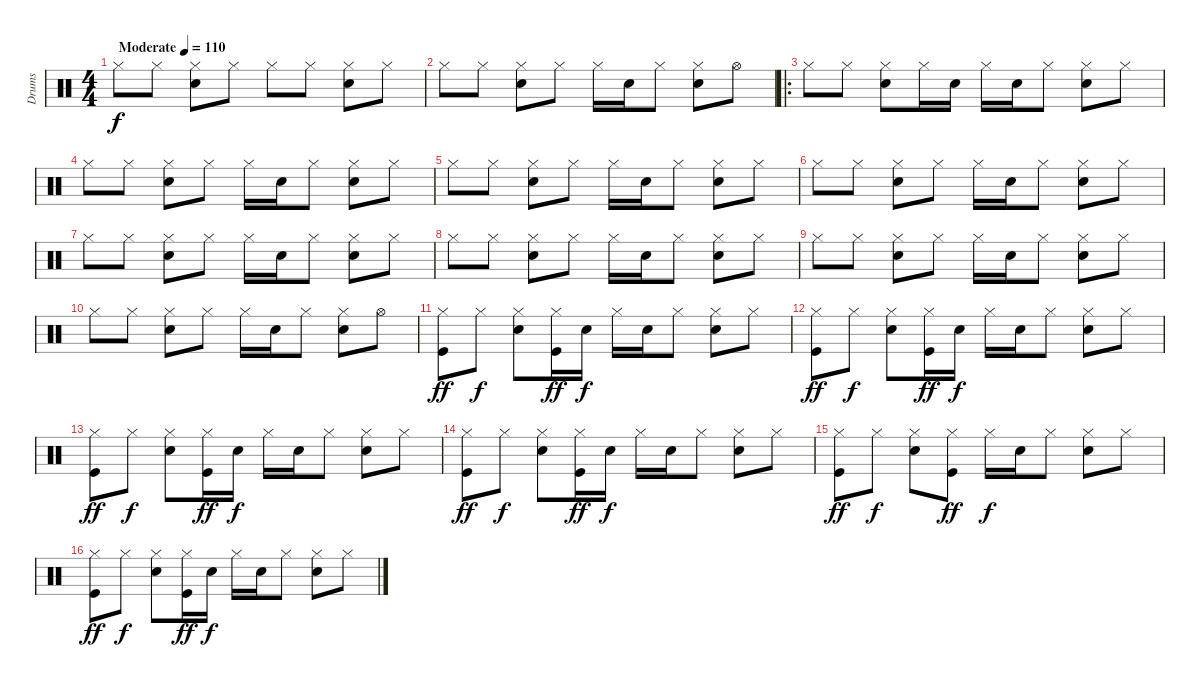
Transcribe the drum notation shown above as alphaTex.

\track ("Drums" "Drums") {instrument percussion}
\staff {score}
\articulation defaults
\ts (4 4)
\tempo (110 "Moderate")
\clef neutral
\ks c "Hi-Hat (closed)".8{dy f} "Hi-Hat (closed)".8
("Hi-Hat (closed)" "Snare (hit) 2").8 "Hi-Hat (closed)".8 "Hi-Hat (closed)".8 "Hi-Hat (closed)".8 ("Hi-Hat (closed)" "Snare (hit) 2").8 "Hi-Hat (closed)".8 |
"Hi-Hat (closed)".8 "Hi-Hat (closed)".8 ("Hi-Hat (closed)" "Snare (hit) 2").8 "Hi-Hat (closed)".8 "Hi-Hat (closed)".16 "Snare (hit) 2".16 "Hi-Hat (closed)".8 ("Hi-Hat (closed)" "Snare (hit) 2").8 "Hi-Hat (open)".8 |
\ro "Hi-Hat (closed)".8 "Hi-Hat (closed)".8
("Hi-Hat (closed)" "Snare (hit) 2").8 "Hi-Hat (closed)".16 "Snare (hit) 2".16 "Hi-Hat (closed)".16 "Snare (hit) 2".16 "Hi-Hat (closed)".8 ("Hi-Hat (closed)" "Snare (hit) 2").8 "Hi-Hat (closed)".8 |
"Hi-Hat (closed)".8 "Hi-Hat (closed)".8 ("Hi-Hat (closed)" "Snare (hit) 2").8 "Hi-Hat (closed)".8 "Hi-Hat (closed)".16 "Snare (hit) 2".16 "Hi-Hat (closed)".8 ("Hi-Hat (closed)" "Snare (hit) 2").8 "Hi-Hat (closed)".8 |
"Hi-Hat (closed)".8 "Hi-Hat (closed)".8 ("Hi-Hat (closed)" "Snare (hit) 2").8 "Hi-Hat (closed)".8 "Hi-Hat (closed)".16 "Snare (hit) 2".16 "Hi-Hat (closed)".8 ("Hi-Hat (closed)" "Snare (hit) 2").8 "Hi-Hat (closed)".8 |
"Hi-Hat (closed)".8 "Hi-Hat (closed)".8 ("Hi-Hat (closed)" "Snare (hit) 2").8 "Hi-Hat (closed)".8 "Hi-Hat (closed)".16 "Snare (hit) 2".16 "Hi-Hat (closed)".8 ("Hi-Hat (closed)" "Snare (hit) 2").8 "Hi-Hat (closed)".8 |
"Hi-Hat (closed)".8 "Hi-Hat (closed)".8 ("Hi-Hat (closed)" "Snare (hit) 2").8 "Hi-Hat (closed)".8 "Hi-Hat (closed)".16 "Snare (hit) 2".16 "Hi-Hat (closed)".8 ("Hi-Hat (closed)" "Snare (hit) 2").8 "Hi-Hat (closed)".8 |
"Hi-Hat (closed)".8 "Hi-Hat (closed)".8 ("Hi-Hat (closed)" "Snare (hit) 2").8 "Hi-Hat (closed)".8 "Hi-Hat (closed)".16 "Snare (hit) 2".16 "Hi-Hat (closed)".8 ("Hi-Hat (closed)" "Snare (hit) 2").8 "Hi-Hat (closed)".8 |
"Hi-Hat (closed)".8 "Hi-Hat (closed)".8 ("Hi-Hat (closed)" "Snare (hit) 2").8 "Hi-Hat (closed)".8 "Hi-Hat (closed)".16 "Snare (hit) 2".16 "Hi-Hat (closed)".8 ("Hi-Hat (closed)" "Snare (hit) 2").8 "Hi-Hat (closed)".8 |
"Hi-Hat (closed)".8 "Hi-Hat (closed)".8 ("Hi-Hat (closed)" "Snare (hit) 2").8 "Hi-Hat (closed)".8 "Hi-Hat (closed)".16 "Snare (hit) 2".16 "Hi-Hat (closed)".8 ("Hi-Hat (closed)" "Snare (hit) 2").8 "Hi-Hat (open)".8 |
("Hi-Hat (closed)" "Kick (hit)").8{dy ff} "Hi-Hat (closed)".8{dy f} ("Hi-Hat (closed)" "Snare (hit) 2").8 ("Hi-Hat (closed)" "Kick (hit)").16{dy ff} "Snare (hit) 2".16{dy f} "Hi-Hat (closed)".16 "Snare (hit) 2".16 "Hi-Hat (closed)".8 ("Hi-Hat (closed)" "Snare (hit) 2").8 "Hi-Hat (closed)".8 |
("Hi-Hat (closed)" "Kick (hit)").8{dy ff} "Hi-Hat (closed)".8{dy f} ("Hi-Hat (closed)" "Snare (hit) 2").8 ("Hi-Hat (closed)" "Kick (hit)").16{dy ff} "Snare (hit) 2".16{dy f} "Hi-Hat (closed)".16 "Snare (hit) 2".16 "Hi-Hat (closed)".8 ("Hi-Hat (closed)" "Snare (hit) 2").8 "Hi-Hat (closed)".8 |
("Hi-Hat (closed)" "Kick (hit)").8{dy ff} "Hi-Hat (closed)".8{dy f} ("Hi-Hat (closed)" "Snare (hit) 2").8 ("Hi-Hat (closed)" "Kick (hit)").16{dy ff} "Snare (hit) 2".16{dy f} "Hi-Hat (closed)".16 "Snare (hit) 2".16 "Hi-Hat (closed)".8 ("Hi-Hat (closed)" "Snare (hit) 2").8 "Hi-Hat (closed)".8 |
("Hi-Hat (closed)" "Kick (hit)").8{dy ff} "Hi-Hat (closed)".8{dy f} ("Hi-Hat (closed)" "Snare (hit) 2").8 ("Hi-Hat (closed)" "Kick (hit)").16{dy ff} "Snare (hit) 2".16{dy f} "Hi-Hat (closed)".16 "Snare (hit) 2".16 "Hi-Hat (closed)".8 ("Hi-Hat (closed)" "Snare (hit) 2").8 "Hi-Hat (closed)".8 |
("Hi-Hat (closed)" "Kick (hit)").8{dy ff} "Hi-Hat (closed)".8{dy f} ("Hi-Hat (closed)" "Snare (hit) 2").8 ("Hi-Hat (closed)" "Kick (hit)").8{dy ff} "Hi-Hat (closed)".16{dy f} "Snare (hit) 2".16 "Hi-Hat (closed)".8 ("Hi-Hat (closed)" "Snare (hit) 2").8 "Hi-Hat (closed)".8 |
("Hi-Hat (closed)" "Kick (hit)").8{dy ff} "Hi-Hat (closed)".8{dy f} ("Hi-Hat (closed)" "Snare (hit) 2").8 ("Hi-Hat (closed)" "Kick (hit)").16{dy ff} "Snare (hit) 2".16{dy f} "Hi-Hat (closed)".16 "Snare (hit) 2".16 "Hi-Hat (closed)".8 ("Hi-Hat (closed)" "Snare (hit) 2").8 "Hi-Hat (closed)".8
